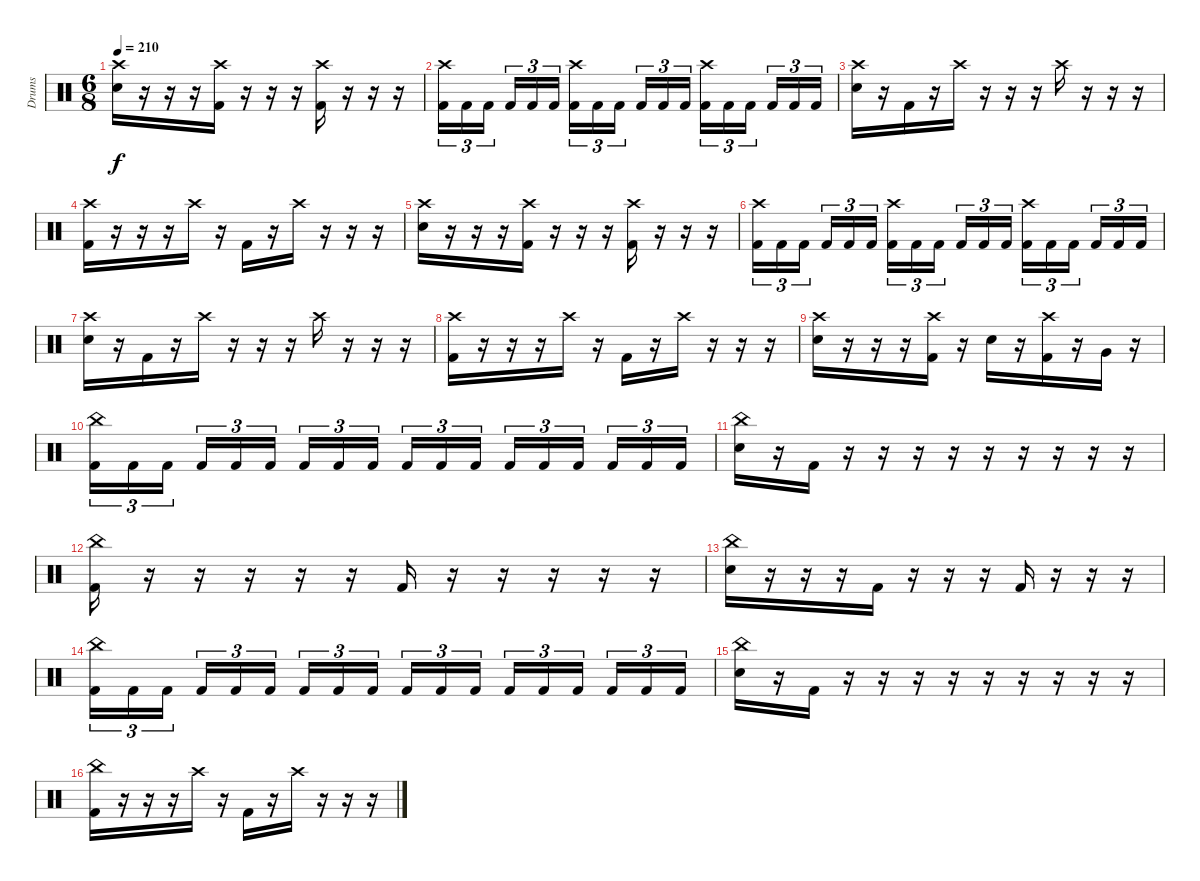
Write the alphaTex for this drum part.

\track ("Drums" "Drums") {instrument percussion}
\staff {score}
\articulation defaults
\ts (6 8)
\tempo 210
\clef neutral
\ks c
("Crash high (hit)" "Electric Snare (hit)").16{dy f} r.16 r.16 r.16 ("Crash high (hit)" "Kick (hit) 2").16 r.16 r.16 r.16 ("Crash high (hit)" "Kick (hit) 2").16 r.16 r.16 r.16 |
("Crash high (hit)" "Kick (hit) 2").16{tu (3 2)} "Kick (hit) 2".16{tu (3 2)} "Kick (hit) 2".16{tu (3 2) beam splitsecondary} "Kick (hit) 2".16{tu (3 2)} "Kick (hit) 2".16{tu (3 2)} "Kick (hit) 2".16{tu (3 2) beam splitsecondary} ("Crash high (hit)" "Kick (hit) 2").16{tu (3 2)} "Kick (hit) 2".16{tu (3 2)} "Kick (hit) 2".16{tu (3 2)} "Kick (hit) 2".16{tu (3 2)} "Kick (hit) 2".16{tu (3 2)} "Kick (hit) 2".16{tu (3 2) beam splitsecondary} ("Crash high (hit)" "Kick (hit) 2").16{tu (3 2)} "Kick (hit) 2".16{tu (3 2)} "Kick (hit) 2".16{tu (3 2) beam splitsecondary} "Kick (hit) 2".16{tu (3 2)} "Kick (hit) 2".16{tu (3 2)} "Kick (hit) 2".16{tu (3 2)} |
("Crash high (hit)" "Electric Snare (hit)").16 r.16 "Kick (hit) 2".16 r.16 "Crash high (hit)".16 r.16 r.16 r.16 "Crash high (hit)".16 r.16 r.16 r.16 |
("Crash high (hit)" "Kick (hit) 2").16 r.16 r.16 r.16 "Crash high (hit)".16 r.16 "Kick (hit) 2".16 r.16 "Crash high (hit)".16 r.16 r.16 r.16 |
("Crash high (hit)" "Electric Snare (hit)").16 r.16 r.16 r.16 ("Crash high (hit)" "Kick (hit) 2").16 r.16 r.16 r.16 ("Crash high (hit)" "Kick (hit) 2").16 r.16 r.16 r.16 |
("Crash high (hit)" "Kick (hit) 2").16{tu (3 2)} "Kick (hit) 2".16{tu (3 2)} "Kick (hit) 2".16{tu (3 2) beam splitsecondary} "Kick (hit) 2".16{tu (3 2)} "Kick (hit) 2".16{tu (3 2)} "Kick (hit) 2".16{tu (3 2) beam splitsecondary} ("Crash high (hit)" "Kick (hit) 2").16{tu (3 2)} "Kick (hit) 2".16{tu (3 2)} "Kick (hit) 2".16{tu (3 2)} "Kick (hit) 2".16{tu (3 2)} "Kick (hit) 2".16{tu (3 2)} "Kick (hit) 2".16{tu (3 2) beam splitsecondary} ("Crash high (hit)" "Kick (hit) 2").16{tu (3 2)} "Kick (hit) 2".16{tu (3 2)} "Kick (hit) 2".16{tu (3 2) beam splitsecondary} "Kick (hit) 2".16{tu (3 2)} "Kick (hit) 2".16{tu (3 2)} "Kick (hit) 2".16{tu (3 2)} |
("Crash high (hit)" "Electric Snare (hit)").16 r.16 "Kick (hit) 2".16 r.16 "Crash high (hit)".16 r.16 r.16 r.16 "Crash high (hit)".16 r.16 r.16 r.16 |
("Crash high (hit)" "Kick (hit) 2").16 r.16 r.16 r.16 "Crash high (hit)".16 r.16 "Kick (hit) 2".16 r.16 "Crash high (hit)".16 r.16 r.16 r.16 |
("Crash high (hit)" "Electric Snare (hit)").16 r.16 r.16 r.16 ("Crash high (hit)" "Kick (hit) 2").16 r.16 "Electric Snare (hit)".16 r.16 ("Crash high (hit)" "Kick (hit) 2").16 r.16 "Very Low Tom (hit)".16 r.16 |
("China (hit)" "Kick (hit) 2").16{tu (3 2)} "Kick (hit) 2".16{tu (3 2)} "Kick (hit) 2".16{tu (3 2) beam splitsecondary} "Kick (hit) 2".16{tu (3 2)} "Kick (hit) 2".16{tu (3 2)} "Kick (hit) 2".16{tu (3 2) beam splitsecondary} "Kick (hit) 2".16{tu (3 2)} "Kick (hit) 2".16{tu (3 2)} "Kick (hit) 2".16{tu (3 2)} "Kick (hit) 2".16{tu (3 2)} "Kick (hit) 2".16{tu (3 2)} "Kick (hit) 2".16{tu (3 2) beam splitsecondary} "Kick (hit) 2".16{tu (3 2)} "Kick (hit) 2".16{tu (3 2)} "Kick (hit) 2".16{tu (3 2) beam splitsecondary} "Kick (hit) 2".16{tu (3 2)} "Kick (hit) 2".16{tu (3 2)} "Kick (hit) 2".16{tu (3 2)} |
("China (hit)" "Electric Snare (hit)").16 r.16 "Kick (hit) 2".16 r.16 r.16 r.16 r.16 r.16 r.16 r.16 r.16 r.16 |
("China (hit)" "Kick (hit) 2").16 r.16 r.16 r.16 r.16 r.16 "Kick (hit) 2".16 r.16 r.16 r.16 r.16 r.16 |
("China (hit)" "Electric Snare (hit)").16 r.16 r.16 r.16 "Kick (hit) 2".16 r.16 r.16 r.16 "Kick (hit) 2".16 r.16 r.16 r.16 |
("China (hit)" "Kick (hit) 2").16{tu (3 2)} "Kick (hit) 2".16{tu (3 2)} "Kick (hit) 2".16{tu (3 2) beam splitsecondary} "Kick (hit) 2".16{tu (3 2)} "Kick (hit) 2".16{tu (3 2)} "Kick (hit) 2".16{tu (3 2) beam splitsecondary} "Kick (hit) 2".16{tu (3 2)} "Kick (hit) 2".16{tu (3 2)} "Kick (hit) 2".16{tu (3 2)} "Kick (hit) 2".16{tu (3 2)} "Kick (hit) 2".16{tu (3 2)} "Kick (hit) 2".16{tu (3 2) beam splitsecondary} "Kick (hit) 2".16{tu (3 2)} "Kick (hit) 2".16{tu (3 2)} "Kick (hit) 2".16{tu (3 2) beam splitsecondary} "Kick (hit) 2".16{tu (3 2)} "Kick (hit) 2".16{tu (3 2)} "Kick (hit) 2".16{tu (3 2)} |
("China (hit)" "Electric Snare (hit)").16 r.16 "Kick (hit) 2".16 r.16 r.16 r.16 r.16 r.16 r.16 r.16 r.16 r.16 |
("China (hit)" "Kick (hit) 2").16 r.16 r.16 r.16 "Crash high (hit)".16 r.16 "Kick (hit) 2".16 r.16 "Crash high (hit)".16 r.16 r.16 r.16
